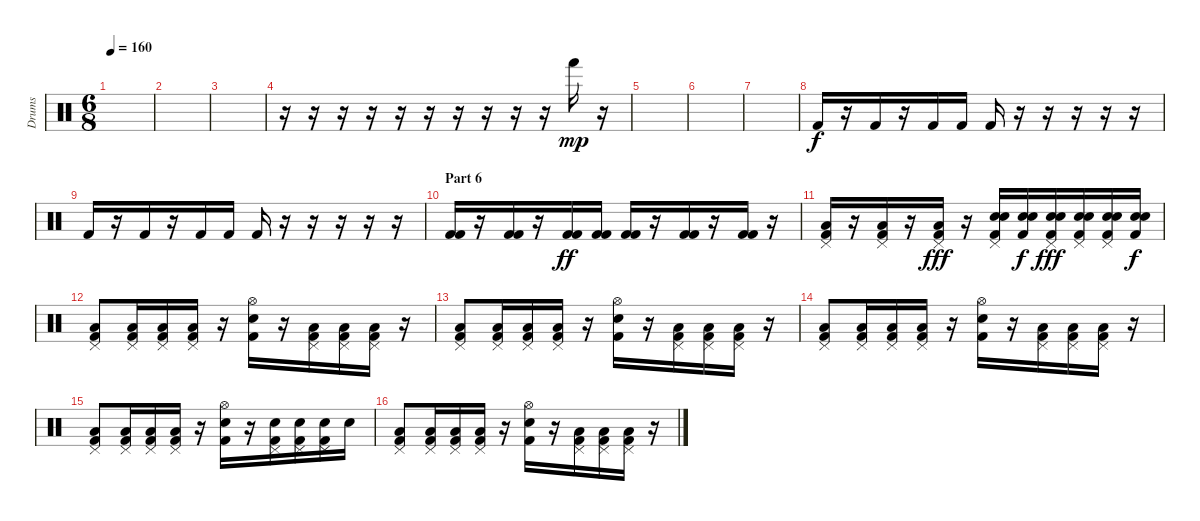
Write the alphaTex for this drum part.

\track ("Drums" "Drums") {instrument percussion}
\staff {score}
\articulation defaults
\ts (6 8)
\tempo 160
\clef neutral
\ks c
|
|
|
r.16 r.16 r.16 r.16 r.16 r.16 r.16 r.16 r.16 r.16 "Hand (hit)".16{dy mp} r.16 |
|
|
|
"Kick (hit) 2".16{dy f} r.16 "Kick (hit) 2".16 r.16 "Kick (hit) 2".16 "Kick (hit) 2".16 "Kick (hit) 2".16 r.16 r.16 r.16 r.16 r.16 |
"Kick (hit) 2".16 r.16 "Kick (hit) 2".16 r.16 "Kick (hit) 2".16 "Kick (hit) 2".16 "Kick (hit) 2".16 r.16 r.16 r.16 r.16 r.16 |
\section ("" "Part 6")
("Kick (hit) 2" "Kick (hit) 2").16 r.16 ("Kick (hit) 2" "Kick (hit) 2").16 r.16 ("Kick (hit) 2" "Kick (hit) 2").16{dy ff} ("Kick (hit) 2" "Kick (hit) 2").16 ("Kick (hit) 2" "Kick (hit) 2").16 r.16 ("Kick (hit) 2" "Kick (hit) 2").16 r.16 ("Kick (hit) 2" "Kick (hit) 2").16 r.16 |
("Pedal Hi-Hat (hit)" "Low Tom (hit)" "Kick (hit) 2").16 r.16 ("Pedal Hi-Hat (hit)" "Low Tom (hit)" "Kick (hit) 2").16 r.16 ("Pedal Hi-Hat (hit)" "Low Tom (hit)" "Kick (hit) 2").16{dy fff} r.16 ("Pedal Hi-Hat (hit)" "Snare (hit) 2" "Electric Snare (hit)" "Kick (hit) 2").16 ("Snare (hit) 2" "Electric Snare (hit)" "Kick (hit) 2").16{dy f} ("Pedal Hi-Hat (hit)" "Snare (hit) 2" "Electric Snare (hit)" "Kick (hit) 2").16{dy fff} ("Pedal Hi-Hat (hit)" "Snare (hit) 2" "Electric Snare (hit)" "Kick (hit) 2").16 ("Pedal Hi-Hat (hit)" "Snare (hit) 2" "Electric Snare (hit)" "Kick (hit) 2").16 ("Snare (hit) 2" "Electric Snare (hit)" "Kick (hit) 2").16{dy f} |
("Pedal Hi-Hat (hit)" "Low Floor Tom (hit)" "Kick (hit) 2").8 ("Pedal Hi-Hat (hit)" "Low Floor Tom (hit)" "Kick (hit) 2").16 ("Pedal Hi-Hat (hit)" "Low Floor Tom (hit)" "Kick (hit) 2").16 ("Pedal Hi-Hat (hit)" "Low Floor Tom (hit)" "Kick (hit) 2").16 r.16 ("Hi-Hat (open)" "Snare (hit) 2" "Kick (hit) 2").16 r.16 ("Pedal Hi-Hat (hit)" "Low Floor Tom (hit)" "Kick (hit) 2").16 ("Pedal Hi-Hat (hit)" "Low Floor Tom (hit)" "Kick (hit) 2").16 ("Pedal Hi-Hat (hit)" "Low Floor Tom (hit)" "Kick (hit) 2").16 r.16 |
("Pedal Hi-Hat (hit)" "Low Floor Tom (hit)" "Kick (hit) 2").8 ("Pedal Hi-Hat (hit)" "Low Floor Tom (hit)" "Kick (hit) 2").16 ("Pedal Hi-Hat (hit)" "Low Floor Tom (hit)" "Kick (hit) 2").16 ("Pedal Hi-Hat (hit)" "Low Floor Tom (hit)" "Kick (hit) 2").16 r.16 ("Hi-Hat (open)" "Snare (hit) 2" "Kick (hit) 2").16 r.16 ("Pedal Hi-Hat (hit)" "Low Floor Tom (hit)" "Kick (hit) 2").16 ("Pedal Hi-Hat (hit)" "Low Floor Tom (hit)" "Kick (hit) 2").16 ("Pedal Hi-Hat (hit)" "Low Floor Tom (hit)" "Kick (hit) 2").16 r.16 |
("Pedal Hi-Hat (hit)" "Low Floor Tom (hit)" "Kick (hit) 2").8 ("Pedal Hi-Hat (hit)" "Low Floor Tom (hit)" "Kick (hit) 2").16 ("Pedal Hi-Hat (hit)" "Low Floor Tom (hit)" "Kick (hit) 2").16 ("Pedal Hi-Hat (hit)" "Low Floor Tom (hit)" "Kick (hit) 2").16 r.16 ("Hi-Hat (open)" "Snare (hit) 2" "Kick (hit) 2").16 r.16 ("Pedal Hi-Hat (hit)" "Low Floor Tom (hit)" "Kick (hit) 2").16 ("Pedal Hi-Hat (hit)" "Low Floor Tom (hit)" "Kick (hit) 2").16 ("Pedal Hi-Hat (hit)" "Low Floor Tom (hit)" "Kick (hit) 2").16 r.16 |
("Pedal Hi-Hat (hit)" "Low Floor Tom (hit)" "Kick (hit) 2").8 ("Pedal Hi-Hat (hit)" "Low Floor Tom (hit)" "Kick (hit) 2").16 ("Pedal Hi-Hat (hit)" "Low Floor Tom (hit)" "Kick (hit) 2").16 ("Pedal Hi-Hat (hit)" "Low Floor Tom (hit)" "Kick (hit) 2").16 r.16 ("Hi-Hat (open)" "Snare (hit) 2" "Kick (hit) 2").16 r.16 ("Pedal Hi-Hat (hit)" "Electric Snare (hit)" "Kick (hit) 2").16 ("Pedal Hi-Hat (hit)" "Electric Snare (hit)" "Kick (hit) 2").16 ("Pedal Hi-Hat (hit)" "Electric Snare (hit)" "Kick (hit) 2").16 "Electric Snare (hit)".16 |
("Pedal Hi-Hat (hit)" "Low Floor Tom (hit)" "Kick (hit) 2").8 ("Pedal Hi-Hat (hit)" "Low Floor Tom (hit)" "Kick (hit) 2").16 ("Pedal Hi-Hat (hit)" "Low Floor Tom (hit)" "Kick (hit) 2").16 ("Pedal Hi-Hat (hit)" "Low Floor Tom (hit)" "Kick (hit) 2").16 r.16 ("Hi-Hat (open)" "Snare (hit) 2" "Kick (hit) 2").16 r.16 ("Pedal Hi-Hat (hit)" "Low Floor Tom (hit)" "Kick (hit) 2").16 ("Pedal Hi-Hat (hit)" "Low Floor Tom (hit)" "Kick (hit) 2").16 ("Pedal Hi-Hat (hit)" "Low Floor Tom (hit)" "Kick (hit) 2").16 r.16
